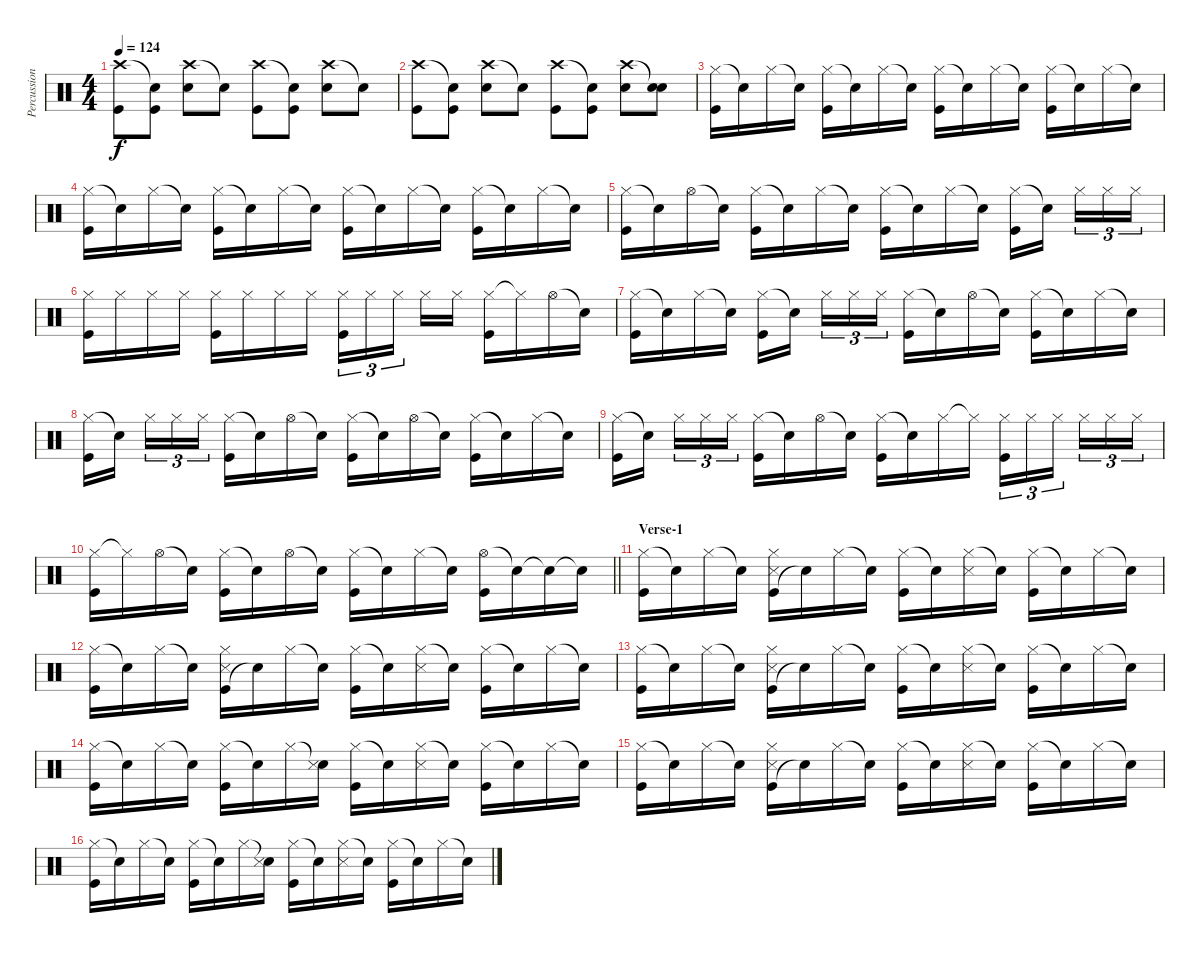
\track ("Percussion" "Percussion") {instrument percussion}
\staff {score}
\articulation defaults
\ts (4 4)
\tempo 124
\clef neutral
\ks c
("Crash high (hit)" "Kick (hit)").8{dy f} ("Snare (hit)"{t} "Kick (hit)").8 ("Crash high (hit)" "Electric Snare (hit)").8 "Snare (hit)"{t}.8 ("Crash high (hit)" "Kick (hit)").8 ("Snare (hit)"{t} "Kick (hit)").8 ("Crash high (hit)" "Electric Snare (hit)").8 "Snare (hit)"{t}.8 |
("Crash high (hit)" "Kick (hit)").8 ("Snare (hit)"{t} "Kick (hit)").8 ("Crash high (hit)" "Electric Snare (hit)").8 "Snare (hit)"{t}.8 ("Crash high (hit)" "Kick (hit)").8 ("Snare (hit)"{t} "Kick (hit)").8 ("Crash high (hit)" "Electric Snare (hit)").8 ("Snare (hit)"{t} "Electric Snare (hit)").8 |
("Hi-Hat (closed)" "Kick (hit)").16 "Snare (hit)"{t}.16 "Hi-Hat (closed)".16 "Snare (hit)"{t}.16 ("Hi-Hat (closed)" "Kick (hit)").16 "Snare (hit)"{t}.16 "Hi-Hat (closed)".16 "Snare (hit)"{t}.16 ("Hi-Hat (closed)" "Kick (hit)").16 "Snare (hit)"{t}.16 "Hi-Hat (closed)".16 "Snare (hit)"{t}.16 ("Hi-Hat (closed)" "Kick (hit)").16 "Snare (hit)"{t}.16 "Hi-Hat (closed)".16 "Snare (hit)"{t}.16 |
("Hi-Hat (closed)" "Kick (hit)").16 "Snare (hit)"{t}.16 "Hi-Hat (closed)".16 "Snare (hit)"{t}.16 ("Hi-Hat (closed)" "Kick (hit)").16 "Snare (hit)"{t}.16 "Hi-Hat (closed)".16 "Snare (hit)"{t}.16 ("Hi-Hat (closed)" "Kick (hit)").16 "Snare (hit)"{t}.16 "Hi-Hat (closed)".16 "Snare (hit)"{t}.16 ("Hi-Hat (closed)" "Kick (hit)").16 "Snare (hit)"{t}.16 "Hi-Hat (closed)".16 "Snare (hit)"{t}.16 |
("Hi-Hat (closed)" "Kick (hit)").16 "Snare (hit)"{t}.16 "Hi-Hat (open)".16 "Snare (hit)"{t}.16 ("Hi-Hat (closed)" "Kick (hit)").16 "Snare (hit)"{t}.16 "Hi-Hat (closed)".16 "Snare (hit)"{t}.16 ("Hi-Hat (closed)" "Kick (hit)").16 "Snare (hit)"{t}.16 "Hi-Hat (closed)".16 "Snare (hit)"{t}.16 ("Hi-Hat (closed)" "Kick (hit)").16 "Snare (hit)"{t}.16 "Hi-Hat (closed)".16{tu (3 2)} "Hi-Hat (closed)".16{tu (3 2)} "Hi-Hat (closed)".16{tu (3 2)} |
("Hi-Hat (closed)" "Kick (hit)").16 "Hi-Hat (closed)".16 "Hi-Hat (closed)".16 "Hi-Hat (closed)".16 ("Hi-Hat (closed)" "Kick (hit)").16 "Hi-Hat (closed)".16 "Hi-Hat (closed)".16 "Hi-Hat (closed)".16 ("Hi-Hat (closed)" "Kick (hit)").16{tu (3 2)} "Hi-Hat (closed)".16{tu (3 2)} "Hi-Hat (closed)".16{tu (3 2)} "Hi-Hat (closed)".16 "Hi-Hat (closed)".16 ("Hi-Hat (closed)" "Kick (hit)").16 "Hi-Hat (closed)"{t}.16 "Hi-Hat (open)".16 "Snare (hit)"{t}.16 |
("Hi-Hat (closed)" "Kick (hit)").16 "Snare (hit)"{t}.16 "Hi-Hat (closed)".16 "Snare (hit)"{t}.16 ("Hi-Hat (closed)" "Kick (hit)").16 "Snare (hit)"{t}.16 "Hi-Hat (closed)".16{tu (3 2)} "Hi-Hat (closed)".16{tu (3 2)} "Hi-Hat (closed)".16{tu (3 2)} ("Hi-Hat (closed)" "Kick (hit)").16 "Snare (hit)"{t}.16 "Hi-Hat (open)".16 "Snare (hit)"{t}.16 ("Hi-Hat (closed)" "Kick (hit)").16 "Snare (hit)"{t}.16 "Hi-Hat (closed)".16 "Snare (hit)"{t}.16 |
("Hi-Hat (closed)" "Kick (hit)").16 "Snare (hit)"{t}.16 "Hi-Hat (closed)".16{tu (3 2)} "Hi-Hat (closed)".16{tu (3 2)} "Hi-Hat (closed)".16{tu (3 2)} ("Hi-Hat (closed)" "Kick (hit)").16 "Snare (hit)"{t}.16 "Hi-Hat (open)".16 "Snare (hit)"{t}.16 ("Hi-Hat (closed)" "Kick (hit)").16 "Snare (hit)"{t}.16 "Hi-Hat (open)".16 "Snare (hit)"{t}.16 ("Hi-Hat (closed)" "Kick (hit)").16 "Snare (hit)"{t}.16 "Hi-Hat (closed)".16 "Snare (hit)"{t}.16 |
("Hi-Hat (closed)" "Kick (hit)").16 "Snare (hit)"{t}.16 "Hi-Hat (closed)".16{tu (3 2)} "Hi-Hat (closed)".16{tu (3 2)} "Hi-Hat (closed)".16{tu (3 2)} ("Hi-Hat (closed)" "Kick (hit)").16 "Snare (hit)"{t}.16 "Hi-Hat (open)".16 "Snare (hit)"{t}.16 ("Hi-Hat (closed)" "Kick (hit)").16 "Snare (hit)"{t}.16 "Hi-Hat (closed)".16 "Hi-Hat (closed)"{t}.16 ("Hi-Hat (closed)" "Kick (hit)").16{tu (3 2)} "Hi-Hat (closed)".16{tu (3 2)} "Hi-Hat (closed)".16{tu (3 2)} "Hi-Hat (closed)".16{tu (3 2)} "Hi-Hat (closed)".16{tu (3 2)} "Hi-Hat (closed)".16{tu (3 2)} |
\barLineRight lightlight
("Hi-Hat (closed)" "Kick (hit)").16 "Hi-Hat (closed)"{t}.16 "Hi-Hat (open)".16 "Snare (hit)"{t}.16 ("Hi-Hat (closed)" "Kick (hit)").16 "Snare (hit)"{t}.16 "Hi-Hat (open)".16 "Snare (hit)"{t}.16 ("Hi-Hat (closed)" "Kick (hit)").16 "Snare (hit)"{t}.16 "Hi-Hat (closed)".16 "Snare (hit)"{t}.16 ("Hi-Hat (open)" "Kick (hit)").16 "Snare (hit)"{t}.16 "Snare (hit)"{t}.16 "Snare (hit)"{t}.16 |
\section ("" "Verse-1")
("Hi-Hat (closed)" "Kick (hit)").16 "Snare (hit)"{t}.16 "Hi-Hat (closed)".16 "Snare (hit)"{t}.16 ("Kick (hit)" "Hi-Hat (closed)" "Snare (side stick) 3").16 "Snare (hit)"{t}.16 "Hi-Hat (closed)".16 "Snare (hit)"{t}.16 ("Hi-Hat (closed)" "Kick (hit)").16 "Snare (hit)"{t}.16 ("Hi-Hat (closed)" "Snare (side stick) 3").16 "Snare (hit)"{t}.16 ("Hi-Hat (closed)" "Kick (hit)").16 "Snare (hit)"{t}.16 "Hi-Hat (closed)".16 "Snare (hit)"{t}.16 |
("Hi-Hat (closed)" "Kick (hit)").16 "Snare (hit)"{t}.16 "Hi-Hat (closed)".16 "Snare (hit)"{t}.16 ("Kick (hit)" "Hi-Hat (closed)" "Snare (side stick) 3").16 "Snare (hit)"{t}.16 "Hi-Hat (closed)".16 "Snare (hit)"{t}.16 ("Hi-Hat (closed)" "Kick (hit)").16 "Snare (hit)"{t}.16 ("Hi-Hat (closed)" "Snare (side stick) 3").16 "Snare (hit)"{t}.16 ("Hi-Hat (closed)" "Kick (hit)").16 "Snare (hit)"{t}.16 "Hi-Hat (closed)".16 "Snare (hit)"{t}.16 |
("Hi-Hat (closed)" "Kick (hit)").16 "Snare (hit)"{t}.16 "Hi-Hat (closed)".16 "Snare (hit)"{t}.16 ("Kick (hit)" "Hi-Hat (closed)" "Snare (side stick) 3").16 "Snare (hit)"{t}.16 "Hi-Hat (closed)".16 "Snare (hit)"{t}.16 ("Hi-Hat (closed)" "Kick (hit)").16 "Snare (hit)"{t}.16 ("Hi-Hat (closed)" "Snare (side stick) 3").16 "Snare (hit)"{t}.16 ("Hi-Hat (closed)" "Kick (hit)").16 "Snare (hit)"{t}.16 "Hi-Hat (closed)".16 "Snare (hit)"{t}.16 |
("Hi-Hat (closed)" "Kick (hit)").16 "Snare (hit)"{t}.16 "Hi-Hat (closed)".16 "Snare (hit)"{t}.16 ("Hi-Hat (closed)" "Kick (hit)").16 "Snare (hit)"{t}.16 "Hi-Hat (closed)".16 ("Snare (hit)"{t} "Snare (side stick) 3").16 ("Hi-Hat (closed)" "Kick (hit)").16 "Snare (hit)"{t}.16 ("Hi-Hat (closed)" "Snare (side stick) 3").16 "Snare (hit)"{t}.16 ("Hi-Hat (closed)" "Kick (hit)").16 "Snare (hit)"{t}.16 "Hi-Hat (closed)".16 "Snare (hit)"{t}.16 |
("Hi-Hat (closed)" "Kick (hit)").16 "Snare (hit)"{t}.16 "Hi-Hat (closed)".16 "Snare (hit)"{t}.16 ("Kick (hit)" "Hi-Hat (closed)" "Snare (side stick) 3").16 "Snare (hit)"{t}.16 "Hi-Hat (closed)".16 "Snare (hit)"{t}.16 ("Hi-Hat (closed)" "Kick (hit)").16 "Snare (hit)"{t}.16 ("Hi-Hat (closed)" "Snare (side stick) 3").16 "Snare (hit)"{t}.16 ("Hi-Hat (closed)" "Kick (hit)").16 "Snare (hit)"{t}.16 "Hi-Hat (closed)".16 "Snare (hit)"{t}.16 |
("Hi-Hat (closed)" "Kick (hit)").16 "Snare (hit)"{t}.16 "Hi-Hat (closed)".16 "Snare (hit)"{t}.16 ("Hi-Hat (closed)" "Kick (hit)").16 "Snare (hit)"{t}.16 "Hi-Hat (closed)".16 ("Snare (hit)"{t} "Snare (side stick) 3").16 ("Hi-Hat (closed)" "Kick (hit)").16 "Snare (hit)"{t}.16 ("Hi-Hat (closed)" "Snare (side stick) 3").16 "Snare (hit)"{t}.16 ("Hi-Hat (closed)" "Kick (hit)").16 "Snare (hit)"{t}.16 "Hi-Hat (closed)".16 "Snare (hit)"{t}.16
